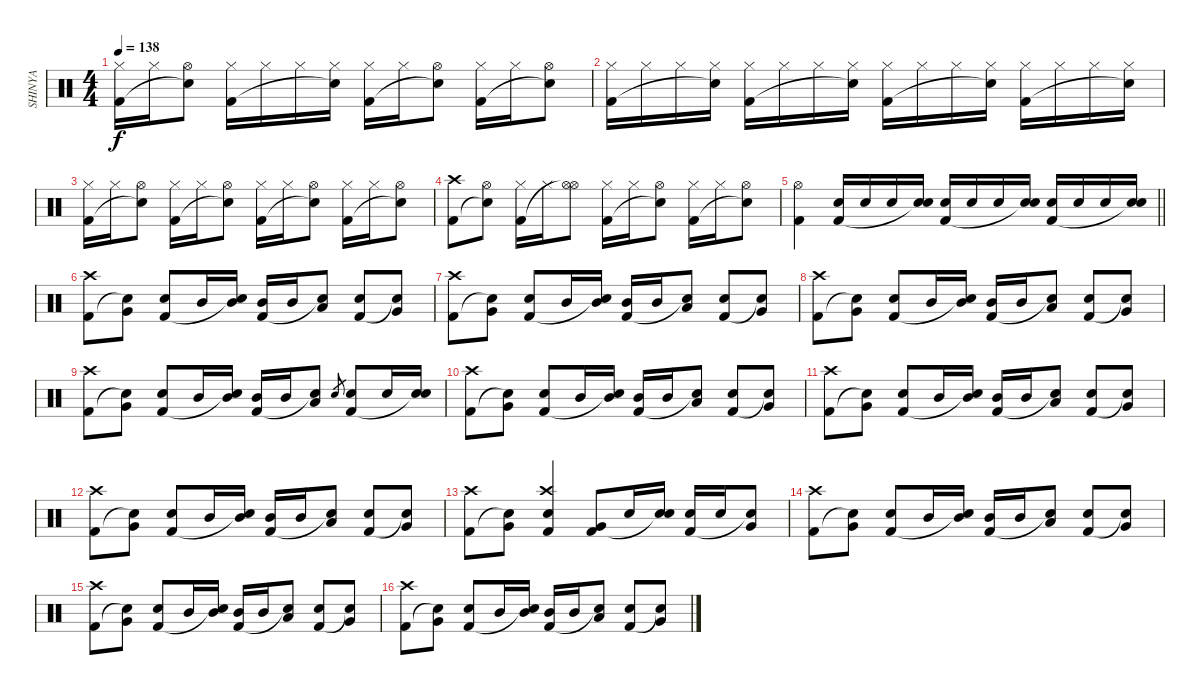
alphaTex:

\track ("SHINYA" "SHINYA") {instrument percussion}
\staff {score}
\articulation defaults
\ts (4 4)
\tempo 138
\clef neutral
\ks c
("Hi-Hat (closed)" "Kick (hit) 2").16{dy f} "Hi-Hat (closed)".16 ("Hi-Hat (open)" "Snare (hit)"{t}).8 ("Hi-Hat (closed)" "Kick (hit) 2").16 "Hi-Hat (closed)".16 "Hi-Hat (closed)".16 ("Hi-Hat (closed)" "Snare (hit)"{t}).16 ("Hi-Hat (closed)" "Kick (hit) 2").16 "Hi-Hat (closed)".16 ("Hi-Hat (open)" "Snare (hit)"{t}).8 ("Hi-Hat (closed)" "Kick (hit) 2").16 "Hi-Hat (closed)".16 ("Hi-Hat (open)" "Snare (hit)"{t}).8 |
("Hi-Hat (closed)" "Kick (hit) 2").16 "Hi-Hat (closed)".16 "Hi-Hat (closed)".16 ("Hi-Hat (closed)" "Snare (hit)"{t}).16 ("Hi-Hat (closed)" "Kick (hit) 2").16 "Hi-Hat (closed)".16 "Hi-Hat (closed)".16 ("Hi-Hat (closed)" "Snare (hit)"{t}).16 ("Hi-Hat (closed)" "Kick (hit) 2").16 "Hi-Hat (closed)".16 "Hi-Hat (closed)".16 ("Hi-Hat (closed)" "Snare (hit)"{t}).16 ("Hi-Hat (closed)" "Kick (hit) 2").16 "Hi-Hat (closed)".16 "Hi-Hat (closed)".16 ("Hi-Hat (closed)" "Snare (hit)"{t}).16 |
("Hi-Hat (closed)" "Kick (hit) 2").16 "Hi-Hat (closed)".16 ("Hi-Hat (open)" "Snare (hit)"{t}).8 ("Hi-Hat (closed)" "Kick (hit) 2").16 "Hi-Hat (closed)".16 ("Hi-Hat (open)" "Snare (hit)"{t}).8 ("Hi-Hat (closed)" "Kick (hit) 2").16 "Hi-Hat (closed)".16 ("Hi-Hat (open)" "Snare (hit)"{t}).8 ("Hi-Hat (closed)" "Kick (hit) 2").16 "Hi-Hat (closed)".16 ("Hi-Hat (open)" "Snare (hit)"{t}).8 |
("Crash high (hit)" "Kick (hit) 2").8 ("Hi-Hat (open)" "Snare (hit)"{t}).8 ("Hi-Hat (closed)" "Kick (hit) 2").16 "Hi-Hat (closed)".16 ("Hi-Hat (open)" "Hi-Hat (open)"{t}).8 ("Hi-Hat (closed)" "Kick (hit) 2").16 "Hi-Hat (closed)".16 ("Hi-Hat (open)" "Snare (hit)"{t}).8 ("Hi-Hat (closed)" "Kick (hit) 2").16 "Hi-Hat (closed)".16 ("Hi-Hat (open)" "Snare (hit)"{t}).8 |
\barLineRight lightlight
("Hi-Hat (open)" "Kick (hit) 2").4 ("Electric Snare (hit)" "Kick (hit) 2").16 "Electric Snare (hit)".16 "Electric Snare (hit)".16 ("Electric Snare (hit)" "Snare (hit)"{t}).16 ("Electric Snare (hit)" "Kick (hit) 2").16 "Electric Snare (hit)".16 "Electric Snare (hit)".16 ("Electric Snare (hit)" "Snare (hit)"{t}).16 ("Electric Snare (hit)" "Kick (hit) 2").16 "Electric Snare (hit)".16 "Electric Snare (hit)".16 ("Electric Snare (hit)" "Snare (hit)"{t}).16 |
("Crash high (hit)" "Kick (hit) 2").8 ("Very Low Tom (hit)" "Snare (hit)"{t}).8 ("Electric Snare (hit)" "Kick (hit) 2").8 "Mid Tom (hit)".16 ("Mid Tom (hit)" "Snare (hit)"{t}).16 ("Mid Tom (hit)" "Kick (hit) 2").16 "Mid Tom (hit)".16 ("Low Tom (hit)" "Snare (hit)"{t}).8 ("Electric Snare (hit)" "Kick (hit) 2").8 ("Very Low Tom (hit)" "Snare (hit)"{t}).8 |
("Crash high (hit)" "Kick (hit) 2").8 ("Very Low Tom (hit)" "Snare (hit)"{t}).8 ("Electric Snare (hit)" "Kick (hit) 2").8 "Mid Tom (hit)".16 ("Mid Tom (hit)" "Snare (hit)"{t}).16 ("Mid Tom (hit)" "Kick (hit) 2").16 "Mid Tom (hit)".16 ("Low Tom (hit)" "Snare (hit)"{t}).8 ("Electric Snare (hit)" "Kick (hit) 2").8 ("Very Low Tom (hit)" "Snare (hit)"{t}).8 |
("Crash high (hit)" "Kick (hit) 2").8 ("Very Low Tom (hit)" "Snare (hit)"{t}).8 ("Electric Snare (hit)" "Kick (hit) 2").8 "Mid Tom (hit)".16 ("Mid Tom (hit)" "Snare (hit)"{t}).16 ("Mid Tom (hit)" "Kick (hit) 2").16 "Mid Tom (hit)".16 ("Low Tom (hit)" "Snare (hit)"{t}).8 ("Electric Snare (hit)" "Kick (hit) 2").8 ("Very Low Tom (hit)" "Snare (hit)"{t}).8 |
("Crash high (hit)" "Kick (hit) 2").8 ("Very Low Tom (hit)" "Snare (hit)"{t}).8 ("Electric Snare (hit)" "Kick (hit) 2").8 "Mid Tom (hit)".16 ("Mid Tom (hit)" "Snare (hit)"{t}).16 ("Mid Tom (hit)" "Kick (hit) 2").16 "Mid Tom (hit)".16 ("Low Tom (hit)" "Snare (hit)"{t}).8 "Electric Snare (hit)".8{gr} ("Electric Snare (hit)" "Kick (hit) 2").8 "Electric Snare (hit)".16 ("Electric Snare (hit)" "Snare (hit)"{t}).16 |
("Crash high (hit)" "Kick (hit) 2").8 ("Very Low Tom (hit)" "Snare (hit)"{t}).8 ("Electric Snare (hit)" "Kick (hit) 2").8 "Mid Tom (hit)".16 ("Mid Tom (hit)" "Snare (hit)"{t}).16 ("Mid Tom (hit)" "Kick (hit) 2").16 "Mid Tom (hit)".16 ("Low Tom (hit)" "Snare (hit)"{t}).8 ("Electric Snare (hit)" "Kick (hit) 2").8 ("Very Low Tom (hit)" "Snare (hit)"{t}).8 |
("Crash high (hit)" "Kick (hit) 2").8 ("Very Low Tom (hit)" "Snare (hit)"{t}).8 ("Electric Snare (hit)" "Kick (hit) 2").8 "Mid Tom (hit)".16 ("Mid Tom (hit)" "Snare (hit)"{t}).16 ("Mid Tom (hit)" "Kick (hit) 2").16 "Mid Tom (hit)".16 ("Low Tom (hit)" "Snare (hit)"{t}).8 ("Electric Snare (hit)" "Kick (hit) 2").8 ("Very Low Tom (hit)" "Snare (hit)"{t}).8 |
("Crash high (hit)" "Kick (hit) 2").8 ("Very Low Tom (hit)" "Snare (hit)"{t}).8 ("Electric Snare (hit)" "Kick (hit) 2").8 "Mid Tom (hit)".16 ("Mid Tom (hit)" "Snare (hit)"{t}).16 ("Mid Tom (hit)" "Kick (hit) 2").16 "Mid Tom (hit)".16 ("Low Tom (hit)" "Snare (hit)"{t}).8 ("Electric Snare (hit)" "Kick (hit) 2").8 ("Very Low Tom (hit)" "Snare (hit)"{t}).8 |
("Crash high (hit)" "Kick (hit) 2").8 ("Very Low Tom (hit)" "Snare (hit)"{t}).8 ("Crash high (hit)" "Electric Snare (hit)" "Kick (hit) 2").4 ("Very Low Tom (hit)" "Kick (hit) 2").8 "Electric Snare (hit)".16 ("Electric Snare (hit)" "Snare (hit)"{t}).16 ("Electric Snare (hit)" "Kick (hit) 2").16 "Electric Snare (hit)".16 ("Very Low Tom (hit)" "Snare (hit)"{t}).8 |
("Crash high (hit)" "Kick (hit) 2").8 ("Very Low Tom (hit)" "Snare (hit)"{t}).8 ("Electric Snare (hit)" "Kick (hit) 2").8 "Mid Tom (hit)".16 ("Mid Tom (hit)" "Snare (hit)"{t}).16 ("Mid Tom (hit)" "Kick (hit) 2").16 "Mid Tom (hit)".16 ("Low Tom (hit)" "Snare (hit)"{t}).8 ("Electric Snare (hit)" "Kick (hit) 2").8 ("Very Low Tom (hit)" "Snare (hit)"{t}).8 |
("Crash high (hit)" "Kick (hit) 2").8 ("Very Low Tom (hit)" "Snare (hit)"{t}).8 ("Electric Snare (hit)" "Kick (hit) 2").8 "Mid Tom (hit)".16 ("Mid Tom (hit)" "Snare (hit)"{t}).16 ("Mid Tom (hit)" "Kick (hit) 2").16 "Mid Tom (hit)".16 ("Low Tom (hit)" "Snare (hit)"{t}).8 ("Electric Snare (hit)" "Kick (hit) 2").8 ("Very Low Tom (hit)" "Snare (hit)"{t}).8 |
("Crash high (hit)" "Kick (hit) 2").8 ("Very Low Tom (hit)" "Snare (hit)"{t}).8 ("Electric Snare (hit)" "Kick (hit) 2").8 "Mid Tom (hit)".16 ("Mid Tom (hit)" "Snare (hit)"{t}).16 ("Mid Tom (hit)" "Kick (hit) 2").16 "Mid Tom (hit)".16 ("Low Tom (hit)" "Snare (hit)"{t}).8 ("Electric Snare (hit)" "Kick (hit) 2").8 ("Very Low Tom (hit)" "Snare (hit)"{t}).8
